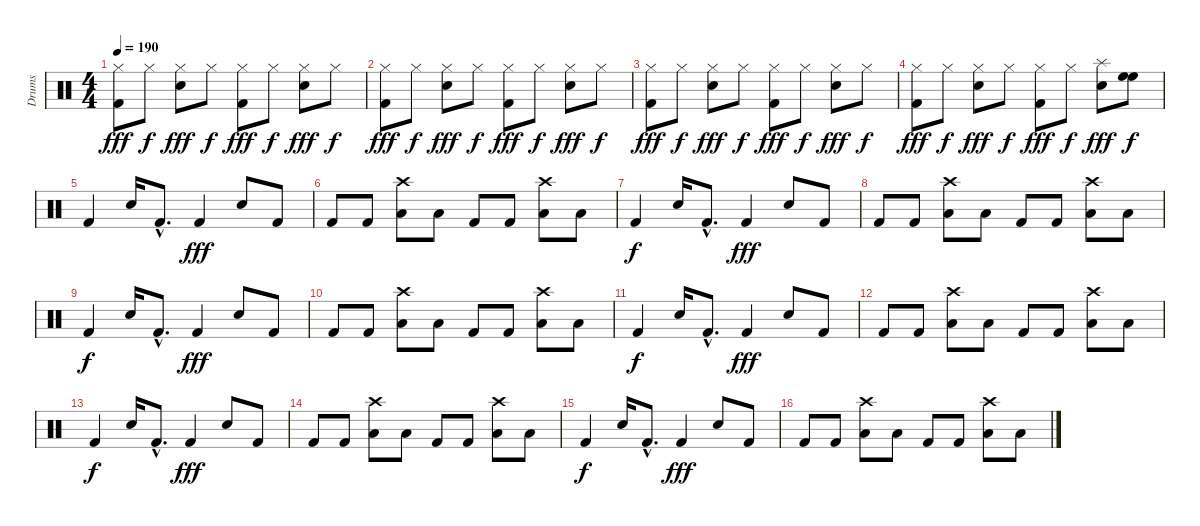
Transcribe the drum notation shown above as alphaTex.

\track ("Drums" "Drums") {instrument percussion}
\staff {score}
\articulation defaults
\ts (4 4)
\tempo 190
\clef neutral
\ks c
("Kick (hit) 2" "Hi-Hat (closed)").8{dy fff} "Hi-Hat (closed)".8{dy f} ("Snare (hit) 2" "Hi-Hat (closed)").8{dy fff} "Hi-Hat (closed)".8{dy f} ("Kick (hit) 2" "Hi-Hat (closed)").8{dy fff} "Hi-Hat (closed)".8{dy f} ("Snare (hit) 2" "Hi-Hat (closed)").8{dy fff} "Hi-Hat (closed)".8{dy f} |
("Kick (hit) 2" "Hi-Hat (closed)").8{dy fff} "Hi-Hat (closed)".8{dy f} ("Snare (hit) 2" "Hi-Hat (closed)").8{dy fff} "Hi-Hat (closed)".8{dy f} ("Kick (hit) 2" "Hi-Hat (closed)").8{dy fff} "Hi-Hat (closed)".8{dy f} ("Snare (hit) 2" "Hi-Hat (closed)").8{dy fff} "Hi-Hat (closed)".8{dy f} |
("Kick (hit) 2" "Hi-Hat (closed)").8{dy fff} "Hi-Hat (closed)".8{dy f} ("Snare (hit) 2" "Hi-Hat (closed)").8{dy fff} "Hi-Hat (closed)".8{dy f} ("Kick (hit) 2" "Hi-Hat (closed)").8{dy fff} "Hi-Hat (closed)".8{dy f} ("Snare (hit) 2" "Hi-Hat (closed)").8{dy fff} "Hi-Hat (closed)".8{dy f} |
("Kick (hit) 2" "Hi-Hat (closed)").8{dy fff} "Hi-Hat (closed)".8{dy f} ("Snare (hit) 2" "Hi-Hat (closed)").8{dy fff} "Hi-Hat (closed)".8{dy f} ("Kick (hit) 2" "Hi-Hat (closed)").8{dy fff} "Hi-Hat (closed)".8{dy f} ("Snare (hit) 2" "Splash (hit)").8{dy fff} ("High Floor Tom (hit)" "High Floor Tom (hit)").8{dy f} |
"Kick (hit) 2".4 "Snare (hit) 2".16 "Kick (hit) 2"{hac}.8{d} "Kick (hit) 2".4{dy fff} "Snare (hit) 2".8 "Kick (hit) 2".8 |
"Kick (hit) 2".8 "Kick (hit) 2".8 ("Low Tom (hit)" "Crash high (hit)").8 "Low Tom (hit)".8 "Kick (hit) 2".8 "Kick (hit) 2".8 ("Low Tom (hit)" "Crash high (hit)").8 "Low Tom (hit)".8 |
"Kick (hit) 2".4{dy f} "Snare (hit) 2".16 "Kick (hit) 2"{hac}.8{d} "Kick (hit) 2".4{dy fff} "Snare (hit) 2".8 "Kick (hit) 2".8 |
"Kick (hit) 2".8 "Kick (hit) 2".8 ("Low Tom (hit)" "Crash high (hit)").8 "Low Tom (hit)".8 "Kick (hit) 2".8 "Kick (hit) 2".8 ("Low Tom (hit)" "Crash high (hit)").8 "Low Tom (hit)".8 |
"Kick (hit) 2".4{dy f} "Snare (hit) 2".16 "Kick (hit) 2"{hac}.8{d} "Kick (hit) 2".4{dy fff} "Snare (hit) 2".8 "Kick (hit) 2".8 |
"Kick (hit) 2".8 "Kick (hit) 2".8 ("Low Tom (hit)" "Crash high (hit)").8 "Low Tom (hit)".8 "Kick (hit) 2".8 "Kick (hit) 2".8 ("Low Tom (hit)" "Crash high (hit)").8 "Low Tom (hit)".8 |
"Kick (hit) 2".4{dy f} "Snare (hit) 2".16 "Kick (hit) 2"{hac}.8{d} "Kick (hit) 2".4{dy fff} "Snare (hit) 2".8 "Kick (hit) 2".8 |
"Kick (hit) 2".8 "Kick (hit) 2".8 ("Low Tom (hit)" "Crash high (hit)").8 "Low Tom (hit)".8 "Kick (hit) 2".8 "Kick (hit) 2".8 ("Low Tom (hit)" "Crash high (hit)").8 "Low Tom (hit)".8 |
"Kick (hit) 2".4{dy f} "Snare (hit) 2".16 "Kick (hit) 2"{hac}.8{d} "Kick (hit) 2".4{dy fff} "Snare (hit) 2".8 "Kick (hit) 2".8 |
"Kick (hit) 2".8 "Kick (hit) 2".8 ("Low Tom (hit)" "Crash high (hit)").8 "Low Tom (hit)".8 "Kick (hit) 2".8 "Kick (hit) 2".8 ("Low Tom (hit)" "Crash high (hit)").8 "Low Tom (hit)".8 |
"Kick (hit) 2".4{dy f} "Snare (hit) 2".16 "Kick (hit) 2"{hac}.8{d} "Kick (hit) 2".4{dy fff} "Snare (hit) 2".8 "Kick (hit) 2".8 |
"Kick (hit) 2".8 "Kick (hit) 2".8 ("Low Tom (hit)" "Crash high (hit)").8 "Low Tom (hit)".8 "Kick (hit) 2".8 "Kick (hit) 2".8 ("Low Tom (hit)" "Crash high (hit)").8 "Low Tom (hit)".8
